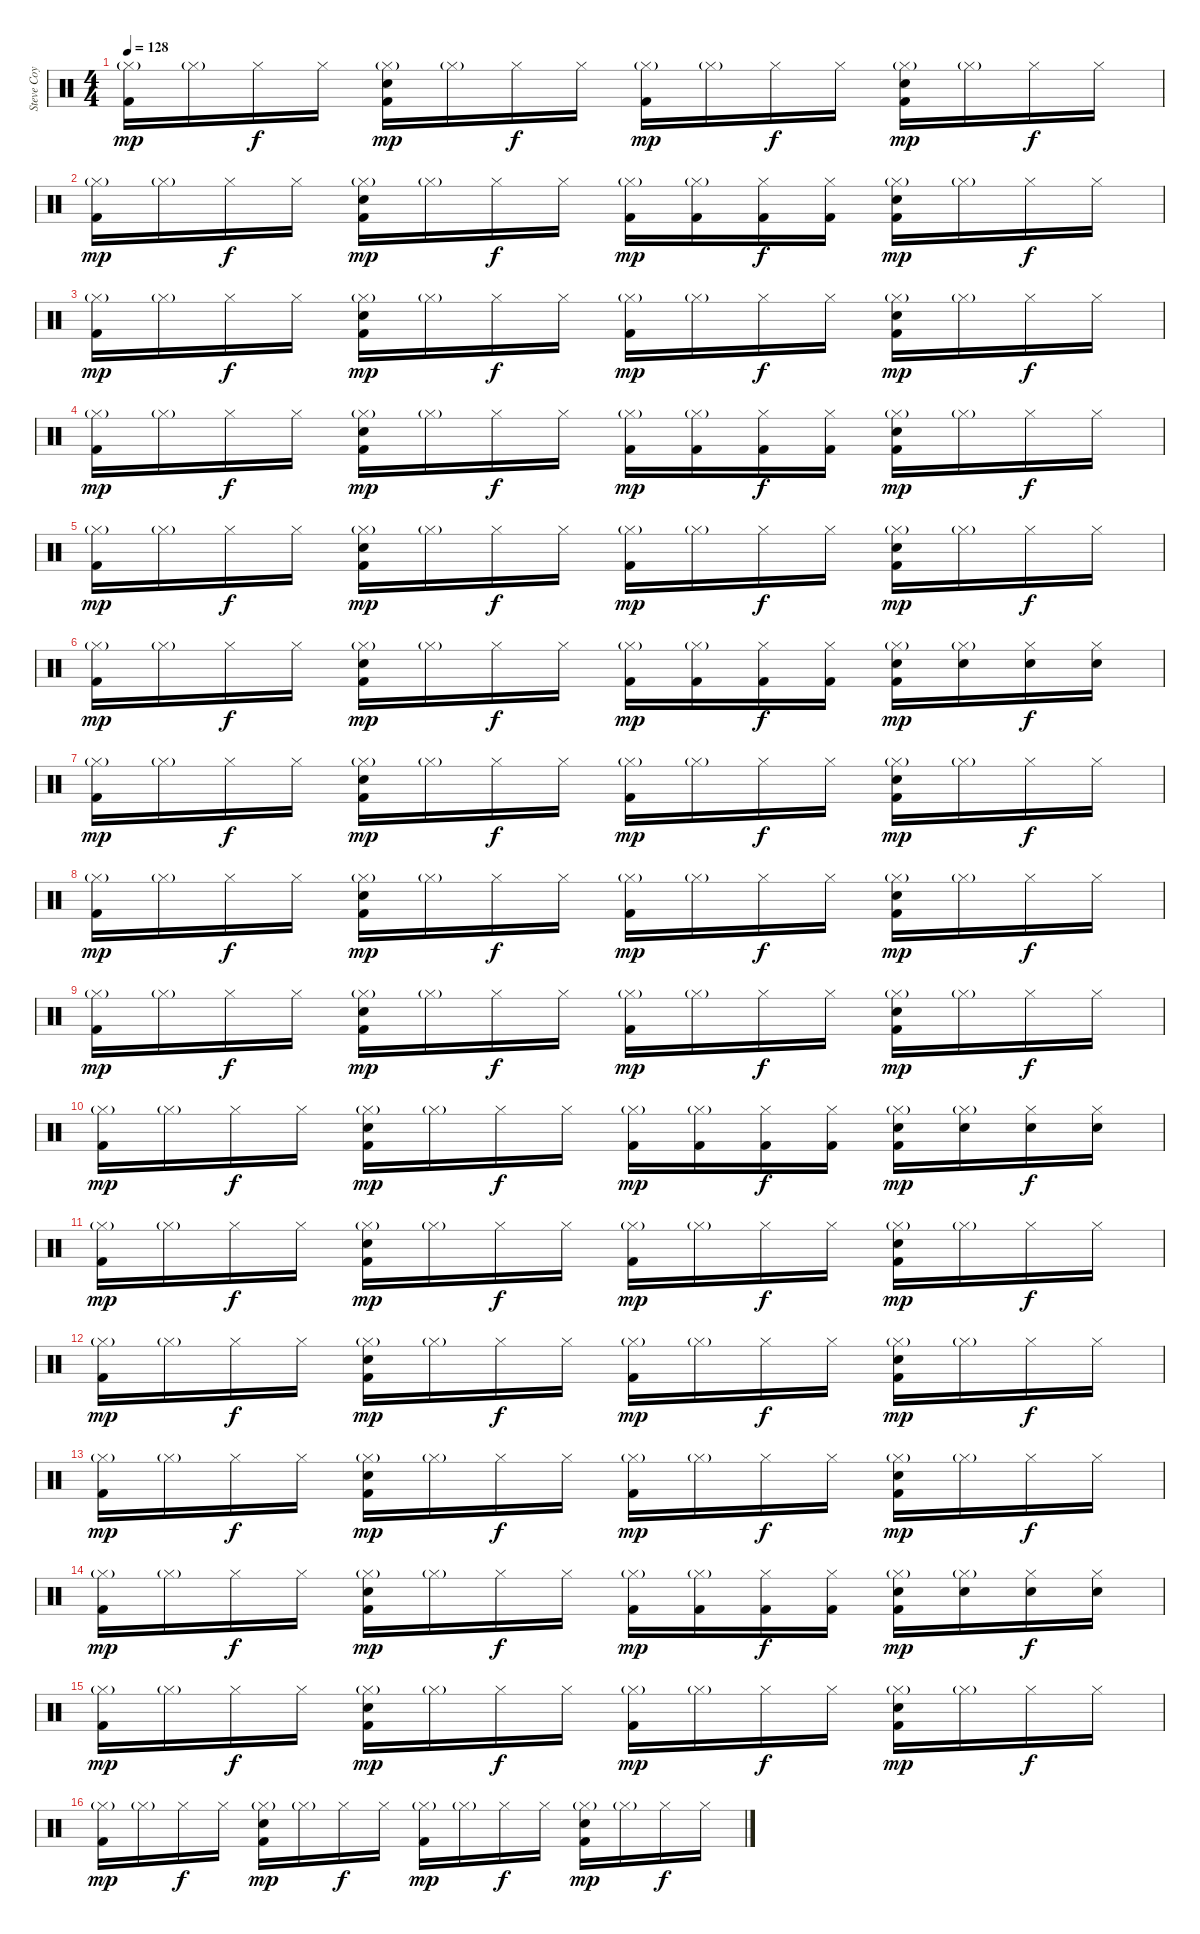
\track ("Steve Coy" "Steve Coy") {instrument percussion}
\staff {score}
\articulation defaults
\ts (4 4)
\tempo 128
\clef neutral
\ks c
("Hi-Hat (closed)"{g} "Kick (hit) 2").16{dy mp} "Hi-Hat (closed)"{g}.16 "Hi-Hat (closed)".16{dy f} "Hi-Hat (closed)".16 ("Hi-Hat (closed)"{g} "Snare (hit) 2" "Kick (hit) 2").16{dy mp} "Hi-Hat (closed)"{g}.16 "Hi-Hat (closed)".16{dy f} "Hi-Hat (closed)".16 ("Hi-Hat (closed)"{g} "Kick (hit) 2").16{dy mp} "Hi-Hat (closed)"{g}.16 "Hi-Hat (closed)".16{dy f} "Hi-Hat (closed)".16 ("Hi-Hat (closed)"{g} "Snare (hit) 2" "Kick (hit) 2").16{dy mp} "Hi-Hat (closed)"{g}.16 "Hi-Hat (closed)".16{dy f} "Hi-Hat (closed)".16 |
("Hi-Hat (closed)"{g} "Kick (hit) 2").16{dy mp} "Hi-Hat (closed)"{g}.16 "Hi-Hat (closed)".16{dy f} "Hi-Hat (closed)".16 ("Hi-Hat (closed)"{g} "Snare (hit) 2" "Kick (hit) 2").16{dy mp} "Hi-Hat (closed)"{g}.16 "Hi-Hat (closed)".16{dy f} "Hi-Hat (closed)".16 ("Hi-Hat (closed)"{g} "Kick (hit) 2").16{dy mp} ("Hi-Hat (closed)"{g} "Kick (hit) 2").16 ("Hi-Hat (closed)" "Kick (hit) 2").16{dy f} ("Hi-Hat (closed)" "Kick (hit) 2").16 ("Hi-Hat (closed)"{g} "Snare (hit) 2" "Kick (hit) 2").16{dy mp} "Hi-Hat (closed)"{g}.16 "Hi-Hat (closed)".16{dy f} "Hi-Hat (closed)".16 |
("Hi-Hat (closed)"{g} "Kick (hit) 2").16{dy mp} "Hi-Hat (closed)"{g}.16 "Hi-Hat (closed)".16{dy f} "Hi-Hat (closed)".16 ("Hi-Hat (closed)"{g} "Snare (hit) 2" "Kick (hit) 2").16{dy mp} "Hi-Hat (closed)"{g}.16 "Hi-Hat (closed)".16{dy f} "Hi-Hat (closed)".16 ("Hi-Hat (closed)"{g} "Kick (hit) 2").16{dy mp} "Hi-Hat (closed)"{g}.16 "Hi-Hat (closed)".16{dy f} "Hi-Hat (closed)".16 ("Hi-Hat (closed)"{g} "Snare (hit) 2" "Kick (hit) 2").16{dy mp} "Hi-Hat (closed)"{g}.16 "Hi-Hat (closed)".16{dy f} "Hi-Hat (closed)".16 |
("Hi-Hat (closed)"{g} "Kick (hit) 2").16{dy mp} "Hi-Hat (closed)"{g}.16 "Hi-Hat (closed)".16{dy f} "Hi-Hat (closed)".16 ("Hi-Hat (closed)"{g} "Snare (hit) 2" "Kick (hit) 2").16{dy mp} "Hi-Hat (closed)"{g}.16 "Hi-Hat (closed)".16{dy f} "Hi-Hat (closed)".16 ("Hi-Hat (closed)"{g} "Kick (hit) 2").16{dy mp} ("Hi-Hat (closed)"{g} "Kick (hit) 2").16 ("Hi-Hat (closed)" "Kick (hit) 2").16{dy f} ("Hi-Hat (closed)" "Kick (hit) 2").16 ("Hi-Hat (closed)"{g} "Snare (hit) 2" "Kick (hit) 2").16{dy mp} "Hi-Hat (closed)"{g}.16 "Hi-Hat (closed)".16{dy f} "Hi-Hat (closed)".16 |
("Hi-Hat (closed)"{g} "Kick (hit) 2").16{dy mp} "Hi-Hat (closed)"{g}.16 "Hi-Hat (closed)".16{dy f} "Hi-Hat (closed)".16 ("Hi-Hat (closed)"{g} "Snare (hit) 2" "Kick (hit) 2").16{dy mp} "Hi-Hat (closed)"{g}.16 "Hi-Hat (closed)".16{dy f} "Hi-Hat (closed)".16 ("Hi-Hat (closed)"{g} "Kick (hit) 2").16{dy mp} "Hi-Hat (closed)"{g}.16 "Hi-Hat (closed)".16{dy f} "Hi-Hat (closed)".16 ("Hi-Hat (closed)"{g} "Snare (hit) 2" "Kick (hit) 2").16{dy mp} "Hi-Hat (closed)"{g}.16 "Hi-Hat (closed)".16{dy f} "Hi-Hat (closed)".16 |
("Hi-Hat (closed)"{g} "Kick (hit) 2").16{dy mp} "Hi-Hat (closed)"{g}.16 "Hi-Hat (closed)".16{dy f} "Hi-Hat (closed)".16 ("Hi-Hat (closed)"{g} "Snare (hit) 2" "Kick (hit) 2").16{dy mp} "Hi-Hat (closed)"{g}.16 "Hi-Hat (closed)".16{dy f} "Hi-Hat (closed)".16 ("Hi-Hat (closed)"{g} "Kick (hit) 2").16{dy mp} ("Hi-Hat (closed)"{g} "Kick (hit) 2").16 ("Hi-Hat (closed)" "Kick (hit) 2").16{dy f} ("Hi-Hat (closed)" "Kick (hit) 2").16 ("Hi-Hat (closed)"{g} "Snare (hit) 2" "Kick (hit) 2").16{dy mp} ("Hi-Hat (closed)"{g} "Snare (hit) 2").16 ("Hi-Hat (closed)" "Snare (hit) 2").16{dy f} ("Hi-Hat (closed)" "Snare (hit) 2").16 |
("Hi-Hat (closed)"{g} "Kick (hit) 2").16{dy mp} "Hi-Hat (closed)"{g}.16 "Hi-Hat (closed)".16{dy f} "Hi-Hat (closed)".16 ("Hi-Hat (closed)"{g} "Snare (hit) 2" "Kick (hit) 2").16{dy mp} "Hi-Hat (closed)"{g}.16 "Hi-Hat (closed)".16{dy f} "Hi-Hat (closed)".16 ("Hi-Hat (closed)"{g} "Kick (hit) 2").16{dy mp} "Hi-Hat (closed)"{g}.16 "Hi-Hat (closed)".16{dy f} "Hi-Hat (closed)".16 ("Hi-Hat (closed)"{g} "Snare (hit) 2" "Kick (hit) 2").16{dy mp} "Hi-Hat (closed)"{g}.16 "Hi-Hat (closed)".16{dy f} "Hi-Hat (closed)".16 |
("Hi-Hat (closed)"{g} "Kick (hit) 2").16{dy mp} "Hi-Hat (closed)"{g}.16 "Hi-Hat (closed)".16{dy f} "Hi-Hat (closed)".16 ("Hi-Hat (closed)"{g} "Snare (hit) 2" "Kick (hit) 2").16{dy mp} "Hi-Hat (closed)"{g}.16 "Hi-Hat (closed)".16{dy f} "Hi-Hat (closed)".16 ("Hi-Hat (closed)"{g} "Kick (hit) 2").16{dy mp} "Hi-Hat (closed)"{g}.16 "Hi-Hat (closed)".16{dy f} "Hi-Hat (closed)".16 ("Hi-Hat (closed)"{g} "Snare (hit) 2" "Kick (hit) 2").16{dy mp} "Hi-Hat (closed)"{g}.16 "Hi-Hat (closed)".16{dy f} "Hi-Hat (closed)".16 |
("Hi-Hat (closed)"{g} "Kick (hit) 2").16{dy mp} "Hi-Hat (closed)"{g}.16 "Hi-Hat (closed)".16{dy f} "Hi-Hat (closed)".16 ("Hi-Hat (closed)"{g} "Snare (hit) 2" "Kick (hit) 2").16{dy mp} "Hi-Hat (closed)"{g}.16 "Hi-Hat (closed)".16{dy f} "Hi-Hat (closed)".16 ("Hi-Hat (closed)"{g} "Kick (hit) 2").16{dy mp} "Hi-Hat (closed)"{g}.16 "Hi-Hat (closed)".16{dy f} "Hi-Hat (closed)".16 ("Hi-Hat (closed)"{g} "Snare (hit) 2" "Kick (hit) 2").16{dy mp} "Hi-Hat (closed)"{g}.16 "Hi-Hat (closed)".16{dy f} "Hi-Hat (closed)".16 |
("Hi-Hat (closed)"{g} "Kick (hit) 2").16{dy mp} "Hi-Hat (closed)"{g}.16 "Hi-Hat (closed)".16{dy f} "Hi-Hat (closed)".16 ("Hi-Hat (closed)"{g} "Snare (hit) 2" "Kick (hit) 2").16{dy mp} "Hi-Hat (closed)"{g}.16 "Hi-Hat (closed)".16{dy f} "Hi-Hat (closed)".16 ("Hi-Hat (closed)"{g} "Kick (hit) 2").16{dy mp} ("Hi-Hat (closed)"{g} "Kick (hit) 2").16 ("Hi-Hat (closed)" "Kick (hit) 2").16{dy f} ("Hi-Hat (closed)" "Kick (hit) 2").16 ("Hi-Hat (closed)"{g} "Snare (hit) 2" "Kick (hit) 2").16{dy mp} ("Hi-Hat (closed)"{g} "Snare (hit) 2").16 ("Hi-Hat (closed)" "Snare (hit) 2").16{dy f} ("Hi-Hat (closed)" "Snare (hit) 2").16 |
("Hi-Hat (closed)"{g} "Kick (hit) 2").16{dy mp} "Hi-Hat (closed)"{g}.16 "Hi-Hat (closed)".16{dy f} "Hi-Hat (closed)".16 ("Hi-Hat (closed)"{g} "Snare (hit) 2" "Kick (hit) 2").16{dy mp} "Hi-Hat (closed)"{g}.16 "Hi-Hat (closed)".16{dy f} "Hi-Hat (closed)".16 ("Hi-Hat (closed)"{g} "Kick (hit) 2").16{dy mp} "Hi-Hat (closed)"{g}.16 "Hi-Hat (closed)".16{dy f} "Hi-Hat (closed)".16 ("Hi-Hat (closed)"{g} "Snare (hit) 2" "Kick (hit) 2").16{dy mp} "Hi-Hat (closed)"{g}.16 "Hi-Hat (closed)".16{dy f} "Hi-Hat (closed)".16 |
("Hi-Hat (closed)"{g} "Kick (hit) 2").16{dy mp} "Hi-Hat (closed)"{g}.16 "Hi-Hat (closed)".16{dy f} "Hi-Hat (closed)".16 ("Hi-Hat (closed)"{g} "Snare (hit) 2" "Kick (hit) 2").16{dy mp} "Hi-Hat (closed)"{g}.16 "Hi-Hat (closed)".16{dy f} "Hi-Hat (closed)".16 ("Hi-Hat (closed)"{g} "Kick (hit) 2").16{dy mp} "Hi-Hat (closed)"{g}.16 "Hi-Hat (closed)".16{dy f} "Hi-Hat (closed)".16 ("Hi-Hat (closed)"{g} "Snare (hit) 2" "Kick (hit) 2").16{dy mp} "Hi-Hat (closed)"{g}.16 "Hi-Hat (closed)".16{dy f} "Hi-Hat (closed)".16 |
("Hi-Hat (closed)"{g} "Kick (hit) 2").16{dy mp} "Hi-Hat (closed)"{g}.16 "Hi-Hat (closed)".16{dy f} "Hi-Hat (closed)".16 ("Hi-Hat (closed)"{g} "Snare (hit) 2" "Kick (hit) 2").16{dy mp} "Hi-Hat (closed)"{g}.16 "Hi-Hat (closed)".16{dy f} "Hi-Hat (closed)".16 ("Hi-Hat (closed)"{g} "Kick (hit) 2").16{dy mp} "Hi-Hat (closed)"{g}.16 "Hi-Hat (closed)".16{dy f} "Hi-Hat (closed)".16 ("Hi-Hat (closed)"{g} "Snare (hit) 2" "Kick (hit) 2").16{dy mp} "Hi-Hat (closed)"{g}.16 "Hi-Hat (closed)".16{dy f} "Hi-Hat (closed)".16 |
("Hi-Hat (closed)"{g} "Kick (hit) 2").16{dy mp} "Hi-Hat (closed)"{g}.16 "Hi-Hat (closed)".16{dy f} "Hi-Hat (closed)".16 ("Hi-Hat (closed)"{g} "Snare (hit) 2" "Kick (hit) 2").16{dy mp} "Hi-Hat (closed)"{g}.16 "Hi-Hat (closed)".16{dy f} "Hi-Hat (closed)".16 ("Hi-Hat (closed)"{g} "Kick (hit) 2").16{dy mp} ("Hi-Hat (closed)"{g} "Kick (hit) 2").16 ("Hi-Hat (closed)" "Kick (hit) 2").16{dy f} ("Hi-Hat (closed)" "Kick (hit) 2").16 ("Hi-Hat (closed)"{g} "Snare (hit) 2" "Kick (hit) 2").16{dy mp} ("Hi-Hat (closed)"{g} "Snare (hit) 2").16 ("Hi-Hat (closed)" "Snare (hit) 2").16{dy f} ("Hi-Hat (closed)" "Snare (hit) 2").16 |
("Hi-Hat (closed)"{g} "Kick (hit) 2").16{dy mp} "Hi-Hat (closed)"{g}.16 "Hi-Hat (closed)".16{dy f} "Hi-Hat (closed)".16 ("Hi-Hat (closed)"{g} "Snare (hit) 2" "Kick (hit) 2").16{dy mp} "Hi-Hat (closed)"{g}.16 "Hi-Hat (closed)".16{dy f} "Hi-Hat (closed)".16 ("Hi-Hat (closed)"{g} "Kick (hit) 2").16{dy mp} "Hi-Hat (closed)"{g}.16 "Hi-Hat (closed)".16{dy f} "Hi-Hat (closed)".16 ("Hi-Hat (closed)"{g} "Snare (hit) 2" "Kick (hit) 2").16{dy mp} "Hi-Hat (closed)"{g}.16 "Hi-Hat (closed)".16{dy f} "Hi-Hat (closed)".16 |
("Hi-Hat (closed)"{g} "Kick (hit) 2").16{dy mp} "Hi-Hat (closed)"{g}.16 "Hi-Hat (closed)".16{dy f} "Hi-Hat (closed)".16 ("Hi-Hat (closed)"{g} "Snare (hit) 2" "Kick (hit) 2").16{dy mp} "Hi-Hat (closed)"{g}.16 "Hi-Hat (closed)".16{dy f} "Hi-Hat (closed)".16 ("Hi-Hat (closed)"{g} "Kick (hit) 2").16{dy mp} "Hi-Hat (closed)"{g}.16 "Hi-Hat (closed)".16{dy f} "Hi-Hat (closed)".16 ("Hi-Hat (closed)"{g} "Snare (hit) 2" "Kick (hit) 2").16{dy mp} "Hi-Hat (closed)"{g}.16 "Hi-Hat (closed)".16{dy f} "Hi-Hat (closed)".16
